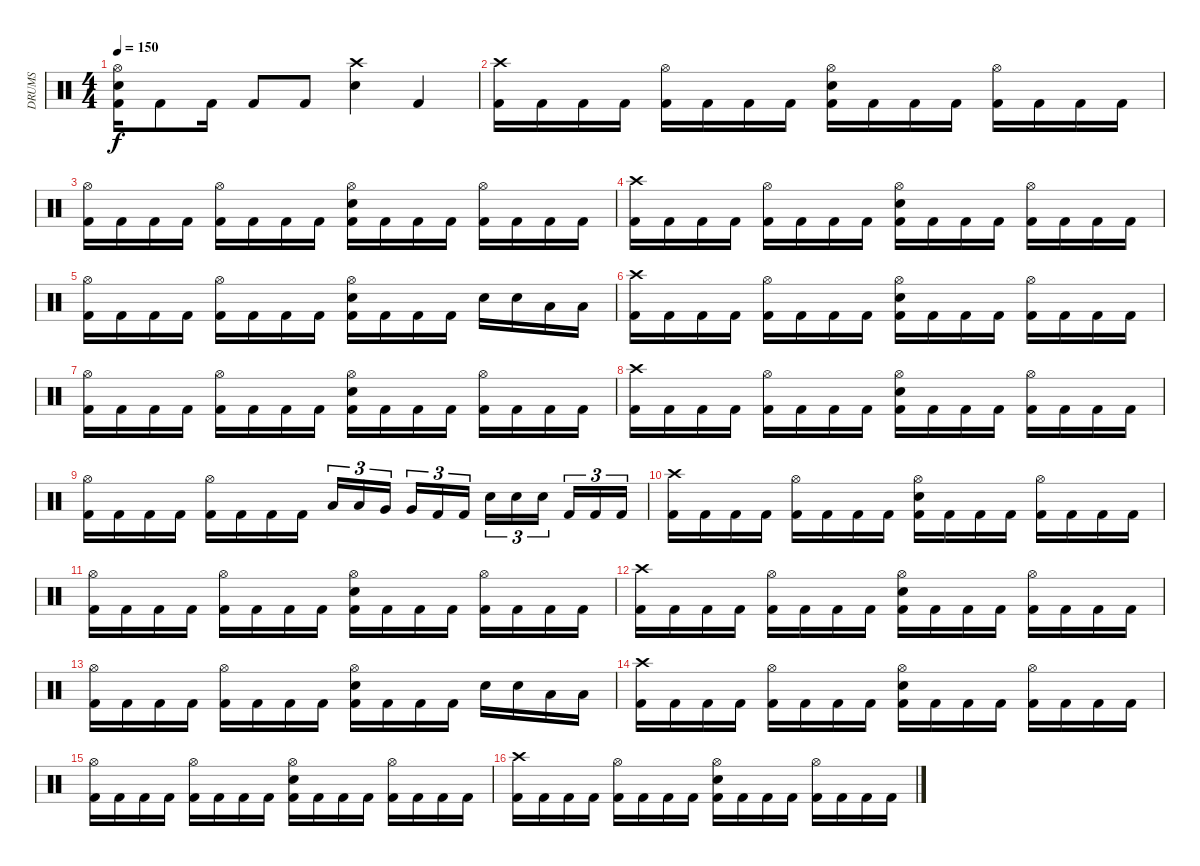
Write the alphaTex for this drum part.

\track ("DRUMS" "DRUMS") {instrument percussion}
\staff {score}
\articulation defaults
\ts (4 4)
\tempo 150
\clef neutral
\ks c
("Hi-Hat (open)" "Electric Snare (hit)" "Kick (hit) 2").16{dy f} "Kick (hit) 2".8 "Kick (hit) 2".16 "Kick (hit) 2".8 "Kick (hit) 2".8 ("Crash high (hit)" "Electric Snare (hit)").4 "Kick (hit) 2".4 |
("Crash high (hit)" "Kick (hit) 2").16 "Kick (hit) 2".16 "Kick (hit) 2".16 "Kick (hit) 2".16 ("Hi-Hat (open)" "Kick (hit) 2").16 "Kick (hit) 2".16 "Kick (hit) 2".16 "Kick (hit) 2".16 ("Hi-Hat (open)" "Electric Snare (hit)" "Kick (hit) 2").16 "Kick (hit) 2".16 "Kick (hit) 2".16 "Kick (hit) 2".16 ("Hi-Hat (open)" "Kick (hit) 2").16 "Kick (hit) 2".16 "Kick (hit) 2".16 "Kick (hit) 2".16 |
("Hi-Hat (open)" "Kick (hit) 2").16 "Kick (hit) 2".16 "Kick (hit) 2".16 "Kick (hit) 2".16 ("Hi-Hat (open)" "Kick (hit) 2").16 "Kick (hit) 2".16 "Kick (hit) 2".16 "Kick (hit) 2".16 ("Hi-Hat (open)" "Electric Snare (hit)" "Kick (hit) 2").16 "Kick (hit) 2".16 "Kick (hit) 2".16 "Kick (hit) 2".16 ("Hi-Hat (open)" "Kick (hit) 2").16 "Kick (hit) 2".16 "Kick (hit) 2".16 "Kick (hit) 2".16 |
("Crash high (hit)" "Kick (hit) 2").16 "Kick (hit) 2".16 "Kick (hit) 2".16 "Kick (hit) 2".16 ("Hi-Hat (open)" "Kick (hit) 2").16 "Kick (hit) 2".16 "Kick (hit) 2".16 "Kick (hit) 2".16 ("Hi-Hat (open)" "Electric Snare (hit)" "Kick (hit) 2").16 "Kick (hit) 2".16 "Kick (hit) 2".16 "Kick (hit) 2".16 ("Hi-Hat (open)" "Kick (hit) 2").16 "Kick (hit) 2".16 "Kick (hit) 2".16 "Kick (hit) 2".16 |
("Hi-Hat (open)" "Kick (hit) 2").16 "Kick (hit) 2".16 "Kick (hit) 2".16 "Kick (hit) 2".16 ("Hi-Hat (open)" "Kick (hit) 2").16 "Kick (hit) 2".16 "Kick (hit) 2".16 "Kick (hit) 2".16 ("Hi-Hat (open)" "Electric Snare (hit)" "Kick (hit) 2").16 "Kick (hit) 2".16 "Kick (hit) 2".16 "Kick (hit) 2".16 "Electric Snare (hit)".16 "Electric Snare (hit)".16 "Low Tom (hit)".16 "Low Tom (hit)".16 |
("Crash high (hit)" "Kick (hit) 2").16 "Kick (hit) 2".16 "Kick (hit) 2".16 "Kick (hit) 2".16 ("Hi-Hat (open)" "Kick (hit) 2").16 "Kick (hit) 2".16 "Kick (hit) 2".16 "Kick (hit) 2".16 ("Hi-Hat (open)" "Electric Snare (hit)" "Kick (hit) 2").16 "Kick (hit) 2".16 "Kick (hit) 2".16 "Kick (hit) 2".16 ("Hi-Hat (open)" "Kick (hit) 2").16 "Kick (hit) 2".16 "Kick (hit) 2".16 "Kick (hit) 2".16 |
("Hi-Hat (open)" "Kick (hit) 2").16 "Kick (hit) 2".16 "Kick (hit) 2".16 "Kick (hit) 2".16 ("Hi-Hat (open)" "Kick (hit) 2").16 "Kick (hit) 2".16 "Kick (hit) 2".16 "Kick (hit) 2".16 ("Hi-Hat (open)" "Electric Snare (hit)" "Kick (hit) 2").16 "Kick (hit) 2".16 "Kick (hit) 2".16 "Kick (hit) 2".16 ("Hi-Hat (open)" "Kick (hit) 2").16 "Kick (hit) 2".16 "Kick (hit) 2".16 "Kick (hit) 2".16 |
("Crash high (hit)" "Kick (hit) 2").16 "Kick (hit) 2".16 "Kick (hit) 2".16 "Kick (hit) 2".16 ("Hi-Hat (open)" "Kick (hit) 2").16 "Kick (hit) 2".16 "Kick (hit) 2".16 "Kick (hit) 2".16 ("Hi-Hat (open)" "Electric Snare (hit)" "Kick (hit) 2").16 "Kick (hit) 2".16 "Kick (hit) 2".16 "Kick (hit) 2".16 ("Hi-Hat (open)" "Kick (hit) 2").16 "Kick (hit) 2".16 "Kick (hit) 2".16 "Kick (hit) 2".16 |
("Hi-Hat (open)" "Kick (hit) 2").16 "Kick (hit) 2".16 "Kick (hit) 2".16 "Kick (hit) 2".16 ("Hi-Hat (open)" "Kick (hit) 2").16 "Kick (hit) 2".16 "Kick (hit) 2".16 "Kick (hit) 2".16 "Low Tom (hit)".16{tu (3 2)} "Low Tom (hit)".16{tu (3 2)} "Very Low Tom (hit)".16{tu (3 2) beam splitsecondary} "Very Low Tom (hit)".16{tu (3 2)} "Kick (hit) 2".16{tu (3 2)} "Kick (hit) 2".16{tu (3 2)} "Electric Snare (hit)".16{tu (3 2)} "Electric Snare (hit)".16{tu (3 2)} "Electric Snare (hit)".16{tu (3 2) beam splitsecondary} "Kick (hit) 2".16{tu (3 2)} "Kick (hit) 2".16{tu (3 2)} "Kick (hit) 2".16{tu (3 2)} |
("Crash high (hit)" "Kick (hit) 2").16 "Kick (hit) 2".16 "Kick (hit) 2".16 "Kick (hit) 2".16 ("Hi-Hat (open)" "Kick (hit) 2").16 "Kick (hit) 2".16 "Kick (hit) 2".16 "Kick (hit) 2".16 ("Hi-Hat (open)" "Electric Snare (hit)" "Kick (hit) 2").16 "Kick (hit) 2".16 "Kick (hit) 2".16 "Kick (hit) 2".16 ("Hi-Hat (open)" "Kick (hit) 2").16 "Kick (hit) 2".16 "Kick (hit) 2".16 "Kick (hit) 2".16 |
("Hi-Hat (open)" "Kick (hit) 2").16 "Kick (hit) 2".16 "Kick (hit) 2".16 "Kick (hit) 2".16 ("Hi-Hat (open)" "Kick (hit) 2").16 "Kick (hit) 2".16 "Kick (hit) 2".16 "Kick (hit) 2".16 ("Hi-Hat (open)" "Electric Snare (hit)" "Kick (hit) 2").16 "Kick (hit) 2".16 "Kick (hit) 2".16 "Kick (hit) 2".16 ("Hi-Hat (open)" "Kick (hit) 2").16 "Kick (hit) 2".16 "Kick (hit) 2".16 "Kick (hit) 2".16 |
("Crash high (hit)" "Kick (hit) 2").16 "Kick (hit) 2".16 "Kick (hit) 2".16 "Kick (hit) 2".16 ("Hi-Hat (open)" "Kick (hit) 2").16 "Kick (hit) 2".16 "Kick (hit) 2".16 "Kick (hit) 2".16 ("Hi-Hat (open)" "Electric Snare (hit)" "Kick (hit) 2").16 "Kick (hit) 2".16 "Kick (hit) 2".16 "Kick (hit) 2".16 ("Hi-Hat (open)" "Kick (hit) 2").16 "Kick (hit) 2".16 "Kick (hit) 2".16 "Kick (hit) 2".16 |
("Hi-Hat (open)" "Kick (hit) 2").16 "Kick (hit) 2".16 "Kick (hit) 2".16 "Kick (hit) 2".16 ("Hi-Hat (open)" "Kick (hit) 2").16 "Kick (hit) 2".16 "Kick (hit) 2".16 "Kick (hit) 2".16 ("Hi-Hat (open)" "Electric Snare (hit)" "Kick (hit) 2").16 "Kick (hit) 2".16 "Kick (hit) 2".16 "Kick (hit) 2".16 "Electric Snare (hit)".16 "Electric Snare (hit)".16 "Low Tom (hit)".16 "Low Tom (hit)".16 |
("Crash high (hit)" "Kick (hit) 2").16 "Kick (hit) 2".16 "Kick (hit) 2".16 "Kick (hit) 2".16 ("Hi-Hat (open)" "Kick (hit) 2").16 "Kick (hit) 2".16 "Kick (hit) 2".16 "Kick (hit) 2".16 ("Hi-Hat (open)" "Electric Snare (hit)" "Kick (hit) 2").16 "Kick (hit) 2".16 "Kick (hit) 2".16 "Kick (hit) 2".16 ("Hi-Hat (open)" "Kick (hit) 2").16 "Kick (hit) 2".16 "Kick (hit) 2".16 "Kick (hit) 2".16 |
("Hi-Hat (open)" "Kick (hit) 2").16 "Kick (hit) 2".16 "Kick (hit) 2".16 "Kick (hit) 2".16 ("Hi-Hat (open)" "Kick (hit) 2").16 "Kick (hit) 2".16 "Kick (hit) 2".16 "Kick (hit) 2".16 ("Hi-Hat (open)" "Electric Snare (hit)" "Kick (hit) 2").16 "Kick (hit) 2".16 "Kick (hit) 2".16 "Kick (hit) 2".16 ("Hi-Hat (open)" "Kick (hit) 2").16 "Kick (hit) 2".16 "Kick (hit) 2".16 "Kick (hit) 2".16 |
("Crash high (hit)" "Kick (hit) 2").16 "Kick (hit) 2".16 "Kick (hit) 2".16 "Kick (hit) 2".16 ("Hi-Hat (open)" "Kick (hit) 2").16 "Kick (hit) 2".16 "Kick (hit) 2".16 "Kick (hit) 2".16 ("Hi-Hat (open)" "Electric Snare (hit)" "Kick (hit) 2").16 "Kick (hit) 2".16 "Kick (hit) 2".16 "Kick (hit) 2".16 ("Hi-Hat (open)" "Kick (hit) 2").16 "Kick (hit) 2".16 "Kick (hit) 2".16 "Kick (hit) 2".16
